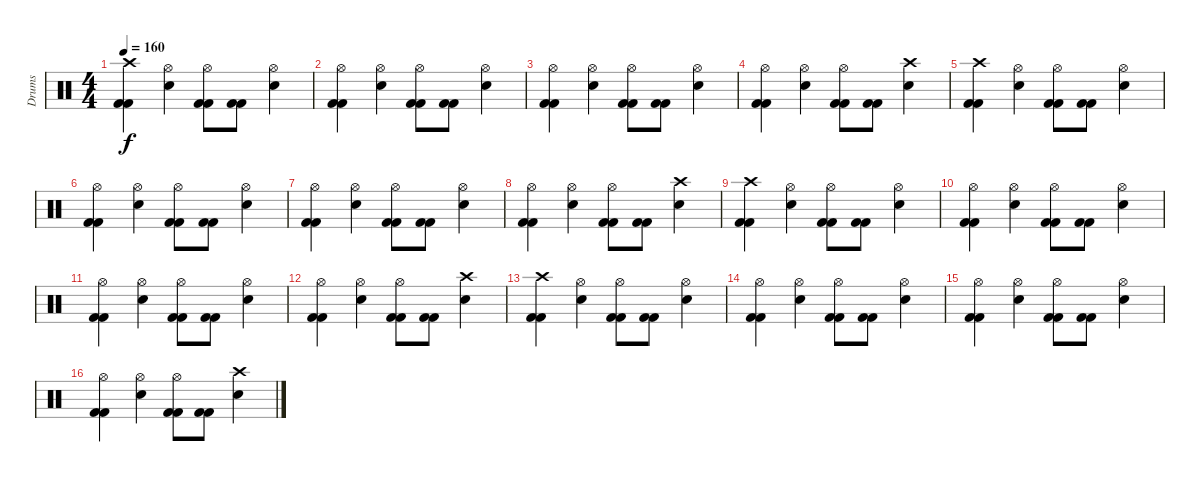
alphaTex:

\track ("Drums" "Drums") {instrument percussion}
\staff {score}
\articulation defaults
\ts (4 4)
\tempo 160
\clef neutral
\ks c
("Crash high (hit)" "Kick (hit) 2" "Kick (hit) 2").4{dy f} ("Electric Snare (hit)" "Hi-Hat (open)").4 ("Kick (hit) 2" "Kick (hit) 2" "Hi-Hat (open)").8 ("Kick (hit) 2" "Kick (hit) 2").8 ("Hi-Hat (open)" "Electric Snare (hit)").4 |
("Hi-Hat (open)" "Kick (hit) 2" "Kick (hit) 2").4 ("Electric Snare (hit)" "Hi-Hat (open)").4 ("Kick (hit) 2" "Kick (hit) 2" "Hi-Hat (open)").8 ("Kick (hit) 2" "Kick (hit) 2").8 ("Hi-Hat (open)" "Electric Snare (hit)").4 |
("Hi-Hat (open)" "Kick (hit) 2" "Kick (hit) 2").4 ("Electric Snare (hit)" "Hi-Hat (open)").4 ("Kick (hit) 2" "Kick (hit) 2" "Hi-Hat (open)").8 ("Kick (hit) 2" "Kick (hit) 2").8 ("Hi-Hat (open)" "Electric Snare (hit)").4 |
("Hi-Hat (open)" "Kick (hit) 2" "Kick (hit) 2").4 ("Electric Snare (hit)" "Hi-Hat (open)").4 ("Kick (hit) 2" "Kick (hit) 2" "Hi-Hat (open)").8 ("Kick (hit) 2" "Kick (hit) 2").8 ("Crash high (hit)" "Electric Snare (hit)").4 |
("Crash high (hit)" "Kick (hit) 2" "Kick (hit) 2").4 ("Electric Snare (hit)" "Hi-Hat (open)").4 ("Kick (hit) 2" "Kick (hit) 2" "Hi-Hat (open)").8 ("Kick (hit) 2" "Kick (hit) 2").8 ("Hi-Hat (open)" "Electric Snare (hit)").4 |
("Hi-Hat (open)" "Kick (hit) 2" "Kick (hit) 2").4 ("Electric Snare (hit)" "Hi-Hat (open)").4 ("Kick (hit) 2" "Kick (hit) 2" "Hi-Hat (open)").8 ("Kick (hit) 2" "Kick (hit) 2").8 ("Hi-Hat (open)" "Electric Snare (hit)").4 |
("Hi-Hat (open)" "Kick (hit) 2" "Kick (hit) 2").4 ("Electric Snare (hit)" "Hi-Hat (open)").4 ("Kick (hit) 2" "Kick (hit) 2" "Hi-Hat (open)").8 ("Kick (hit) 2" "Kick (hit) 2").8 ("Hi-Hat (open)" "Electric Snare (hit)").4 |
("Hi-Hat (open)" "Kick (hit) 2" "Kick (hit) 2").4 ("Electric Snare (hit)" "Hi-Hat (open)").4 ("Kick (hit) 2" "Kick (hit) 2" "Hi-Hat (open)").8 ("Kick (hit) 2" "Kick (hit) 2").8 ("Crash high (hit)" "Electric Snare (hit)").4 |
("Crash high (hit)" "Kick (hit) 2" "Kick (hit) 2").4 ("Electric Snare (hit)" "Hi-Hat (open)").4 ("Kick (hit) 2" "Kick (hit) 2" "Hi-Hat (open)").8 ("Kick (hit) 2" "Kick (hit) 2").8 ("Hi-Hat (open)" "Electric Snare (hit)").4 |
("Hi-Hat (open)" "Kick (hit) 2" "Kick (hit) 2").4 ("Electric Snare (hit)" "Hi-Hat (open)").4 ("Kick (hit) 2" "Kick (hit) 2" "Hi-Hat (open)").8 ("Kick (hit) 2" "Kick (hit) 2").8 ("Hi-Hat (open)" "Electric Snare (hit)").4 |
("Hi-Hat (open)" "Kick (hit) 2" "Kick (hit) 2").4 ("Electric Snare (hit)" "Hi-Hat (open)").4 ("Kick (hit) 2" "Kick (hit) 2" "Hi-Hat (open)").8 ("Kick (hit) 2" "Kick (hit) 2").8 ("Hi-Hat (open)" "Electric Snare (hit)").4 |
("Hi-Hat (open)" "Kick (hit) 2" "Kick (hit) 2").4 ("Electric Snare (hit)" "Hi-Hat (open)").4 ("Kick (hit) 2" "Kick (hit) 2" "Hi-Hat (open)").8 ("Kick (hit) 2" "Kick (hit) 2").8 ("Crash high (hit)" "Electric Snare (hit)").4 |
("Crash high (hit)" "Kick (hit) 2" "Kick (hit) 2").4 ("Electric Snare (hit)" "Hi-Hat (open)").4 ("Kick (hit) 2" "Kick (hit) 2" "Hi-Hat (open)").8 ("Kick (hit) 2" "Kick (hit) 2").8 ("Hi-Hat (open)" "Electric Snare (hit)").4 |
("Hi-Hat (open)" "Kick (hit) 2" "Kick (hit) 2").4 ("Electric Snare (hit)" "Hi-Hat (open)").4 ("Kick (hit) 2" "Kick (hit) 2" "Hi-Hat (open)").8 ("Kick (hit) 2" "Kick (hit) 2").8 ("Hi-Hat (open)" "Electric Snare (hit)").4 |
("Hi-Hat (open)" "Kick (hit) 2" "Kick (hit) 2").4 ("Electric Snare (hit)" "Hi-Hat (open)").4 ("Kick (hit) 2" "Kick (hit) 2" "Hi-Hat (open)").8 ("Kick (hit) 2" "Kick (hit) 2").8 ("Hi-Hat (open)" "Electric Snare (hit)").4 |
("Hi-Hat (open)" "Kick (hit) 2" "Kick (hit) 2").4 ("Electric Snare (hit)" "Hi-Hat (open)").4 ("Kick (hit) 2" "Kick (hit) 2" "Hi-Hat (open)").8 ("Kick (hit) 2" "Kick (hit) 2").8 ("Crash high (hit)" "Electric Snare (hit)").4
